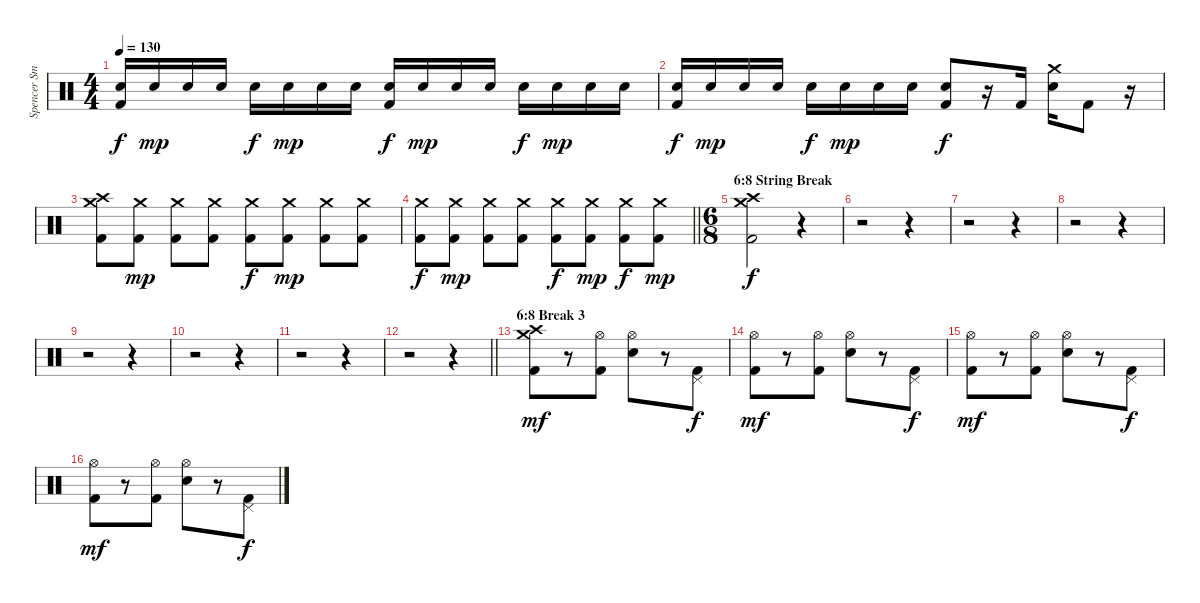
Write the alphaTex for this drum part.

\track ("Spencer Smith (Drums)" "Spencer Sm") {instrument percussion}
\staff {score}
\articulation defaults
\ts (4 4)
\tempo 130
\clef neutral
\ks c
("Electric Snare (hit)" "Kick (hit) 2").16{dy f} "Electric Snare (hit)".16{dy mp} "Electric Snare (hit)".16 "Electric Snare (hit)".16 "Electric Snare (hit)".16{dy f} "Electric Snare (hit)".16{dy mp} "Electric Snare (hit)".16 "Electric Snare (hit)".16 ("Electric Snare (hit)" "Kick (hit) 2").16{dy f} "Electric Snare (hit)".16{dy mp} "Electric Snare (hit)".16 "Electric Snare (hit)".16 "Electric Snare (hit)".16{dy f} "Electric Snare (hit)".16{dy mp} "Electric Snare (hit)".16 "Electric Snare (hit)".16 |
("Electric Snare (hit)" "Kick (hit) 2").16{dy f} "Electric Snare (hit)".16{dy mp} "Electric Snare (hit)".16 "Electric Snare (hit)".16 "Electric Snare (hit)".16{dy f} "Electric Snare (hit)".16{dy mp} "Electric Snare (hit)".16 "Electric Snare (hit)".16 ("Electric Snare (hit)" "Kick (hit) 2").8{dy f} r.16 "Kick (hit) 2".16 ("Crash medium (hit)" "Electric Snare (hit)").16{volume 12} "Kick (hit) 2".8 r.16 |
("Crash high (hit)" "Crash medium (hit)" "Kick (hit) 2").8 ("Crash medium (hit)" "Kick (hit) 2").8{dy mp} ("Crash medium (hit)" "Kick (hit) 2").8 ("Crash medium (hit)" "Kick (hit) 2").8 ("Crash medium (hit)" "Kick (hit) 2").8{dy f} ("Crash medium (hit)" "Kick (hit) 2").8{dy mp} ("Crash medium (hit)" "Kick (hit) 2").8 ("Crash medium (hit)" "Kick (hit) 2").8 |
\barLineRight lightlight
("Crash medium (hit)" "Kick (hit) 2").8{dy f} ("Crash medium (hit)" "Kick (hit) 2").8{dy mp} ("Crash medium (hit)" "Kick (hit) 2").8 ("Crash medium (hit)" "Kick (hit) 2").8 ("Crash medium (hit)" "Kick (hit) 2").8{dy f} ("Crash medium (hit)" "Kick (hit) 2").8{dy mp} ("Crash medium (hit)" "Kick (hit) 2").8{dy f} ("Crash medium (hit)" "Kick (hit) 2").8{dy mp} |
\ts (6 8)
\section ("" "6:8 String Break")
("Crash high (hit)" "Crash medium (hit)" "Kick (hit) 2").2{dy f} r.4 |
r.2 r.4 |
r.2 r.4 |
r.2 r.4 |
r.2 r.4 |
r.2 r.4 |
r.2 r.4 |
\barLineRight lightlight
r.2 r.4 |
\section ("" "6:8 Break 3")
("Crash high (hit)" "Crash medium (hit)" "Kick (hit) 2").8{dy mf} r.8 ("Hi-Hat (open)" "Kick (hit) 2").8 ("Hi-Hat (open)" "Electric Snare (hit)").8 r.8 ("Pedal Hi-Hat (hit)" "Kick (hit) 2").8{dy f} |
("Hi-Hat (open)" "Kick (hit) 2").8{dy mf} r.8 ("Hi-Hat (open)" "Kick (hit) 2").8 ("Hi-Hat (open)" "Electric Snare (hit)").8 r.8 ("Pedal Hi-Hat (hit)" "Kick (hit) 2").8{dy f} |
("Hi-Hat (open)" "Kick (hit) 2").8{dy mf} r.8 ("Hi-Hat (open)" "Kick (hit) 2").8 ("Hi-Hat (open)" "Electric Snare (hit)").8 r.8 ("Pedal Hi-Hat (hit)" "Kick (hit) 2").8{dy f} |
("Hi-Hat (open)" "Kick (hit) 2").8{dy mf} r.8 ("Hi-Hat (open)" "Kick (hit) 2").8 ("Hi-Hat (open)" "Electric Snare (hit)").8 r.8 ("Pedal Hi-Hat (hit)" "Kick (hit) 2").8{dy f}
